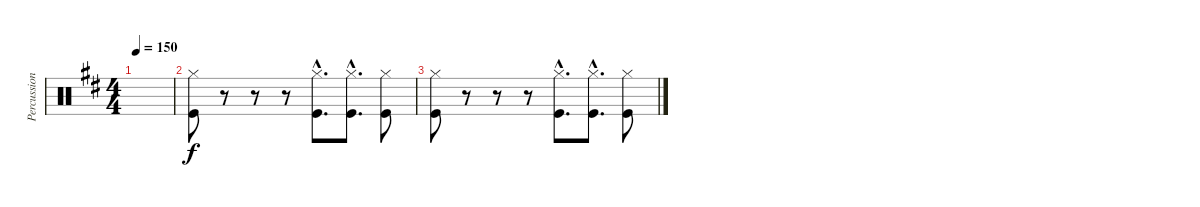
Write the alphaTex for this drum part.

\track ("Percussion" "Percussion") {instrument percussion}
\staff {score}
\articulation defaults
\ts (4 4)
\tempo 150
\clef neutral
\ks d
|
("Hi-Hat (closed)" "Kick (hit)").8 r.8 r.8 r.8 ("Hi-Hat (closed)"{hac} "Kick (hit)"{hac}).8{d} ("Hi-Hat (closed)"{hac} "Kick (hit)"{hac}).8{d} ("Hi-Hat (closed)" "Kick (hit)").8 |
("Hi-Hat (closed)" "Kick (hit)").8 r.8 r.8 r.8 ("Hi-Hat (closed)"{hac} "Kick (hit)"{hac}).8{d} ("Hi-Hat (closed)"{hac} "Kick (hit)"{hac}).8{d} ("Hi-Hat (closed)" "Kick (hit)").8
